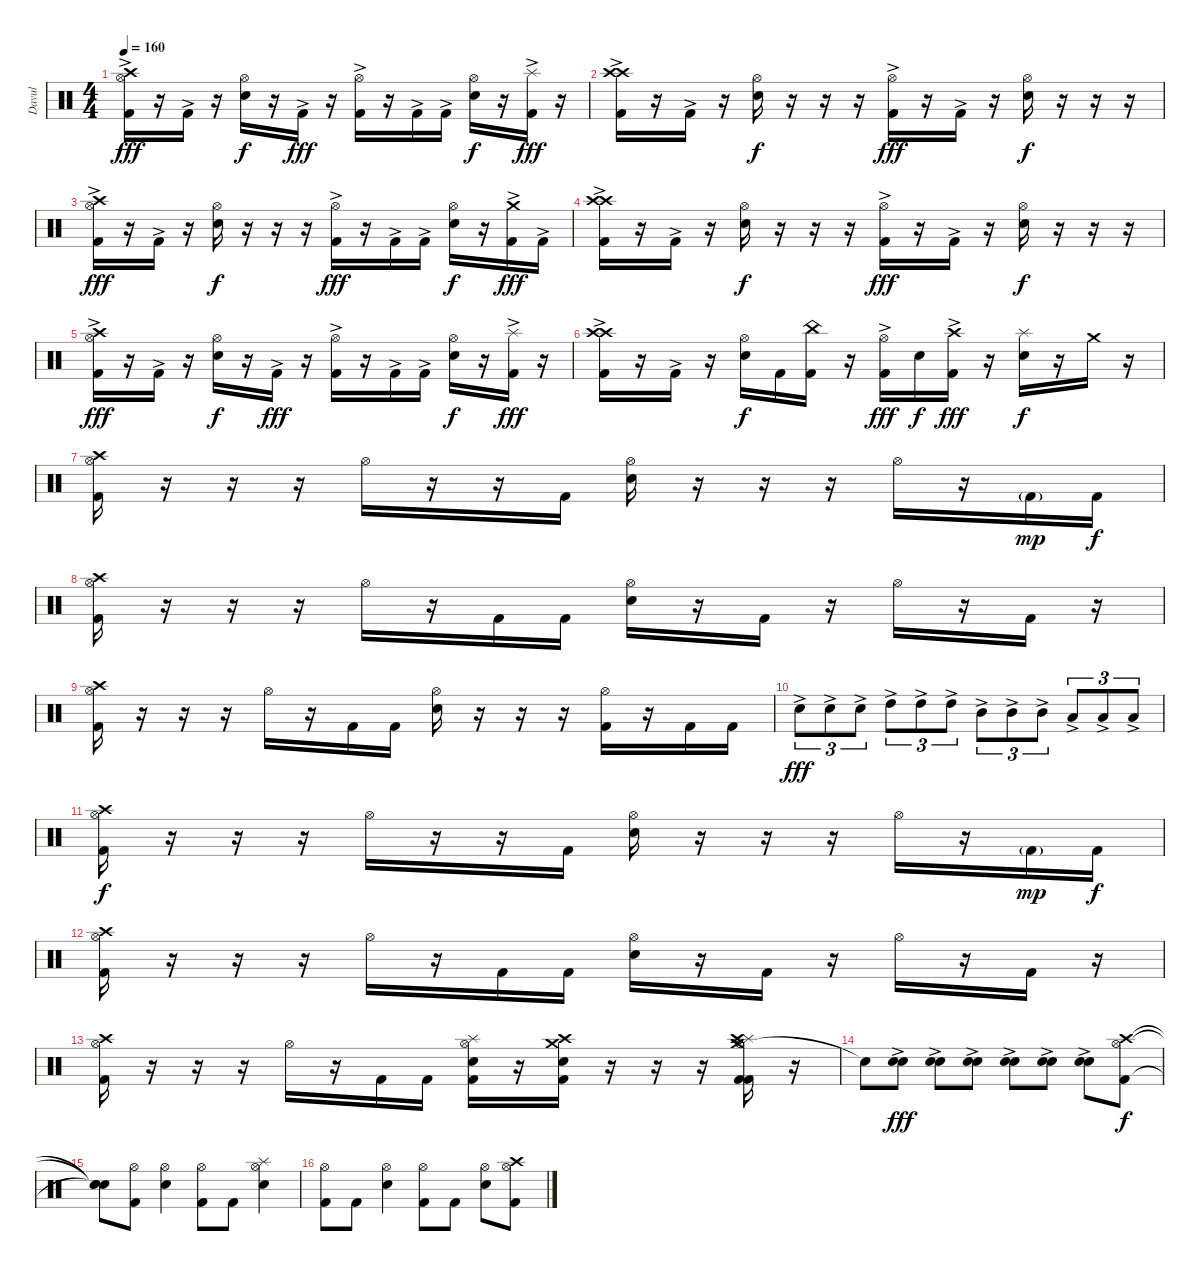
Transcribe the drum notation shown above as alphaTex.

\track ("Davul" "Davul") {instrument percussion}
\staff {score}
\articulation defaults
\ts (4 4)
\tempo 160
\clef neutral
\ks c
("Crash high (hit)" "Hi-Hat (open)" "Kick (hit) 2"{ac}).16{dy fff} r.16 "Kick (hit) 2"{ac}.16 r.16 ("Hi-Hat (open)" "Electric Snare (hit)").16{dy f} r.16 "Kick (hit) 2"{ac}.16{dy fff} r.16 ("Hi-Hat (open)" "Kick (hit) 2"{ac}).16 r.16 "Kick (hit) 2"{ac}.16 "Kick (hit) 2"{ac}.16 ("Hi-Hat (open)" "Electric Snare (hit)").16{dy f} r.16 ("Splash (hit)" "Kick (hit) 2"{ac}).16{dy fff} r.16 |
("Crash high (hit)" "Crash high (hit)" "Kick (hit) 2"{ac}).16 r.16 "Kick (hit) 2"{ac}.16 r.16 ("Hi-Hat (open)" "Electric Snare (hit)").16{dy f} r.16 r.16 r.16 ("Hi-Hat (open)" "Kick (hit) 2"{ac}).16{dy fff} r.16 "Kick (hit) 2"{ac}.16 r.16 ("Hi-Hat (open)" "Electric Snare (hit)").16{dy f} r.16 r.16 r.16 |
("Crash high (hit)" "Hi-Hat (open)" "Kick (hit) 2"{ac}).16{dy fff} r.16 "Kick (hit) 2"{ac}.16 r.16 ("Hi-Hat (open)" "Electric Snare (hit)").16{dy f} r.16 r.16 r.16 ("Hi-Hat (open)" "Kick (hit) 2"{ac}).16{dy fff} r.16 "Kick (hit) 2"{ac}.16 "Kick (hit) 2"{ac}.16 ("Hi-Hat (open)" "Electric Snare (hit)").16{dy f} r.16 ("Crash medium (hit)" "Kick (hit) 2"{ac}).16{dy fff} "Kick (hit) 2"{ac}.16 |
("Crash high (hit)" "Crash high (hit)" "Kick (hit) 2"{ac}).16 r.16 "Kick (hit) 2"{ac}.16 r.16 ("Hi-Hat (open)" "Electric Snare (hit)").16{dy f} r.16 r.16 r.16 ("Hi-Hat (open)" "Kick (hit) 2"{ac}).16{dy fff} r.16 "Kick (hit) 2"{ac}.16 r.16 ("Hi-Hat (open)" "Electric Snare (hit)").16{dy f} r.16 r.16 r.16 |
("Crash high (hit)" "Hi-Hat (open)" "Kick (hit) 2"{ac}).16{dy fff} r.16 "Kick (hit) 2"{ac}.16 r.16 ("Hi-Hat (open)" "Electric Snare (hit)").16{dy f} r.16 "Kick (hit) 2"{ac}.16{dy fff} r.16 ("Hi-Hat (open)" "Kick (hit) 2"{ac}).16 r.16 "Kick (hit) 2"{ac}.16 "Kick (hit) 2"{ac}.16 ("Hi-Hat (open)" "Electric Snare (hit)").16{dy f} r.16 ("Splash (hit)" "Kick (hit) 2"{ac}).16{dy fff} r.16 |
("Crash high (hit)" "Crash high (hit)" "Kick (hit) 2"{ac}).16 r.16 "Kick (hit) 2"{ac}.16 r.16 ("Hi-Hat (open)" "Electric Snare (hit)").16{dy f} "Kick (hit) 2".16 ("China (hit)" "Kick (hit) 2").16 r.16 ("Hi-Hat (open)" "Kick (hit) 2"{ac}).16{dy fff} "Electric Snare (hit)".16{dy f} ("Crash high (hit)" "Kick (hit) 2"{ac}).16{dy fff} r.16 ("Splash (hit)" "Electric Snare (hit)").16{dy f} r.16 "Crash medium (hit)".16 r.16 |
("Hi-Hat (open)" "Crash high (hit)" "Kick (hit) 2").16 r.16 r.16 r.16 "Hi-Hat (open)".16 r.16 r.16 "Kick (hit) 2".16 ("Hi-Hat (open)" "Electric Snare (hit)").16 r.16 r.16 r.16 "Hi-Hat (open)".16 r.16 "Kick (hit) 2"{g}.16{dy mp} "Kick (hit) 2".16{dy f} |
("Hi-Hat (open)" "Crash high (hit)" "Kick (hit) 2").16 r.16 r.16 r.16 "Hi-Hat (open)".16 r.16 "Kick (hit) 2".16 "Kick (hit) 2".16 ("Hi-Hat (open)" "Electric Snare (hit)").16 r.16 "Kick (hit) 2".16 r.16 "Hi-Hat (open)".16 r.16 "Kick (hit) 2".16 r.16 |
("Hi-Hat (open)" "Crash high (hit)" "Kick (hit) 2").16 r.16 r.16 r.16 "Hi-Hat (open)".16 r.16 "Kick (hit) 2".16 "Kick (hit) 2".16 ("Hi-Hat (open)" "Electric Snare (hit)").16 r.16 r.16 r.16 ("Hi-Hat (open)" "Kick (hit) 2").16 r.16 "Kick (hit) 2".16 "Kick (hit) 2".16 |
"Electric Snare (hit)"{ac}.8{tu (3 2) dy fff} "Electric Snare (hit)"{ac}.8{tu (3 2)} "Electric Snare (hit)"{ac}.8{tu (3 2)} "High Tom (hit)"{ac}.8{tu (3 2)} "High Tom (hit)"{ac}.8{tu (3 2)} "High Tom (hit)"{ac}.8{tu (3 2)} "Mid Tom (hit)"{ac}.8{tu (3 2)} "Mid Tom (hit)"{ac}.8{tu (3 2)} "Mid Tom (hit)"{ac}.8{tu (3 2)} "Low Tom (hit)"{ac}.8{tu (3 2)} "Low Tom (hit)"{ac}.8{tu (3 2)} "Low Tom (hit)"{ac}.8{tu (3 2)} |
("Hi-Hat (open)" "Crash high (hit)" "Kick (hit) 2").16{dy f} r.16 r.16 r.16 "Hi-Hat (open)".16 r.16 r.16 "Kick (hit) 2".16 ("Hi-Hat (open)" "Electric Snare (hit)").16 r.16 r.16 r.16 "Hi-Hat (open)".16 r.16 "Kick (hit) 2"{g}.16{dy mp} "Kick (hit) 2".16{dy f} |
("Hi-Hat (open)" "Crash high (hit)" "Kick (hit) 2").16 r.16 r.16 r.16 "Hi-Hat (open)".16 r.16 "Kick (hit) 2".16 "Kick (hit) 2".16 ("Hi-Hat (open)" "Electric Snare (hit)").16 r.16 "Kick (hit) 2".16 r.16 "Hi-Hat (open)".16 r.16 "Kick (hit) 2".16 r.16 |
("Hi-Hat (open)" "Crash high (hit)" "Kick (hit) 2").16 r.16 r.16 r.16 "Hi-Hat (open)".16 r.16 "Kick (hit) 2".16 "Kick (hit) 2".16 ("Hi-Hat (open)" "Splash (hit)" "Kick (hit) 2" "Electric Snare (hit)").16 r.16 ("Crash high (hit)" "Crash medium (hit)" "Kick (hit) 2" "Electric Snare (hit)").16 r.16 r.16 r.16 ("Crash medium (hit)" "Splash (hit)" "Hi-Hat (open)" "Crash high (hit)" "Kick (hit) 2" "Kick (hit) 2").16 r.16 |
"Electric Snare (hit)"{t}.8 ("Electric Snare (hit)"{ac} "Electric Snare (hit)"{ac}).8{dy fff} ("Electric Snare (hit)"{ac} "Electric Snare (hit)"{ac}).8 ("Electric Snare (hit)"{ac} "Electric Snare (hit)"{ac}).8 ("Electric Snare (hit)"{ac} "Electric Snare (hit)"{ac}).8 ("Electric Snare (hit)"{ac} "Electric Snare (hit)"{ac}).8 ("Electric Snare (hit)"{ac} "Electric Snare (hit)"{ac}).8 ("Hi-Hat (open)" "Crash high (hit)" "Kick (hit) 2").8{dy f} |
("Snare (hit)"{t} "Snare (hit)"{t} "Snare (hit)"{t}).8 ("Hi-Hat (open)" "Kick (hit) 2").8 ("Hi-Hat (open)" "Electric Snare (hit)").4 ("Hi-Hat (open)" "Kick (hit) 2").8 "Kick (hit) 2".8 ("Splash (hit)" "Hi-Hat (open)" "Electric Snare (hit)").4 |
("Hi-Hat (open)" "Kick (hit) 2").8 "Kick (hit) 2".8 ("Hi-Hat (open)" "Electric Snare (hit)").4 ("Hi-Hat (open)" "Kick (hit) 2").8 "Kick (hit) 2".8 ("Hi-Hat (open)" "Electric Snare (hit)").8 ("Crash high (hit)" "Hi-Hat (open)" "Kick (hit) 2").8
